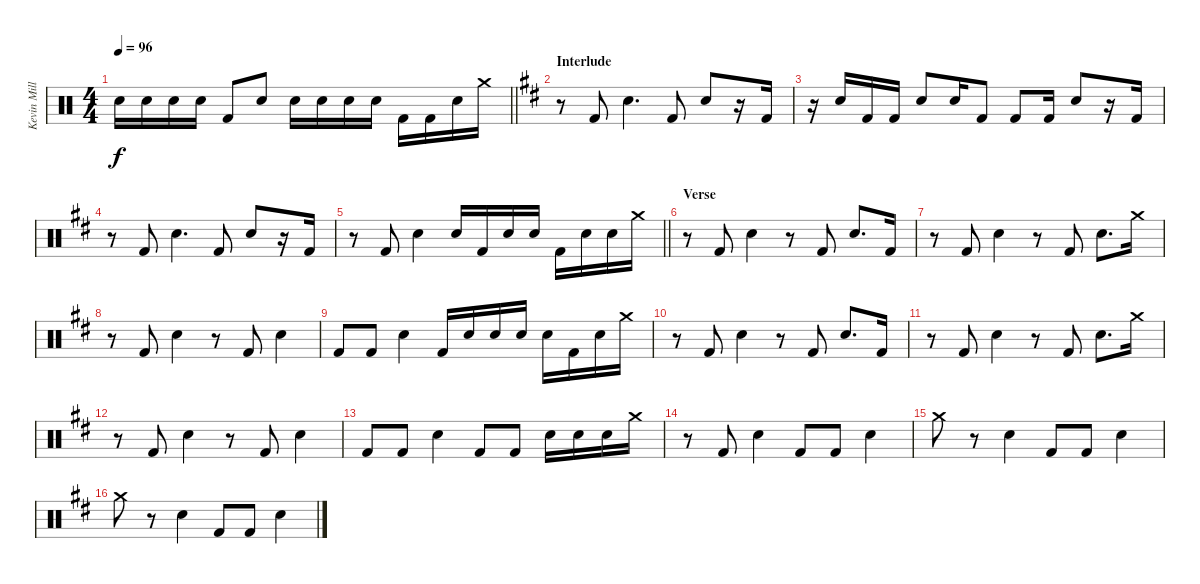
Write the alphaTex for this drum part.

\track ("Kevin Miller (Drums)" "Kevin Mill") {instrument percussion}
\staff {score}
\articulation defaults
\ts (4 4)
\tempo 96
\clef neutral
\barLineRight lightlight
\ks c "Electric Snare (hit)".16{dy f} "Electric Snare (hit)".16 "Electric Snare (hit)".16 "Electric Snare (hit)".16 "Kick (hit) 2".8 "Electric Snare (hit)".8 "Electric Snare (hit)".16 "Electric Snare (hit)".16 "Electric Snare (hit)".16 "Electric Snare (hit)".16 "Kick (hit) 2".16 "Kick (hit) 2".16 "Electric Snare (hit)".16 "Crash medium (hit)".16
|
\section ("" "Interlude")
\ks d
r.8 "Kick (hit) 2".8 "Electric Snare (hit)".4{d} "Kick (hit) 2".8 "Electric Snare (hit)".8 r.16 "Kick (hit) 2".16 |
r.16 "Electric Snare (hit)".16 "Kick (hit) 2".16 "Kick (hit) 2".16 "Electric Snare (hit)".8 "Electric Snare (hit)".16 "Kick (hit) 2".8 "Kick (hit) 2".8 "Kick (hit) 2".16 "Electric Snare (hit)".8 r.16 "Kick (hit) 2".16 |
r.8 "Kick (hit) 2".8 "Electric Snare (hit)".4{d} "Kick (hit) 2".8 "Electric Snare (hit)".8 r.16 "Kick (hit) 2".16 |
\barLineRight lightlight
r.8 "Kick (hit) 2".8 "Electric Snare (hit)".4 "Electric Snare (hit)".16 "Kick (hit) 2".16 "Electric Snare (hit)".16 "Electric Snare (hit)".16 "Kick (hit) 2".16 "Electric Snare (hit)".16 "Electric Snare (hit)".16 "Crash medium (hit)".16 |
\section ("" "Verse")
r.8 "Kick (hit) 2".8 "Electric Snare (hit)".4 r.8 "Kick (hit) 2".8 "Electric Snare (hit)".8{d} "Kick (hit) 2".16 |
r.8 "Kick (hit) 2".8 "Electric Snare (hit)".4 r.8 "Kick (hit) 2".8 "Electric Snare (hit)".8{d} "Crash medium (hit)".16 |
r.8 "Kick (hit) 2".8 "Electric Snare (hit)".4 r.8 "Kick (hit) 2".8 "Electric Snare (hit)".4 |
"Kick (hit) 2".8 "Kick (hit) 2".8 "Electric Snare (hit)".4 "Kick (hit) 2".16 "Electric Snare (hit)".16 "Electric Snare (hit)".16 "Electric Snare (hit)".16 "Electric Snare (hit)".16 "Kick (hit) 2".16 "Electric Snare (hit)".16 "Crash medium (hit)".16 |
r.8 "Kick (hit) 2".8 "Electric Snare (hit)".4 r.8 "Kick (hit) 2".8 "Electric Snare (hit)".8{d} "Kick (hit) 2".16 |
r.8 "Kick (hit) 2".8 "Electric Snare (hit)".4 r.8 "Kick (hit) 2".8 "Electric Snare (hit)".8{d} "Crash medium (hit)".16 |
r.8 "Kick (hit) 2".8 "Electric Snare (hit)".4 r.8 "Kick (hit) 2".8 "Electric Snare (hit)".4 |
"Kick (hit) 2".8 "Kick (hit) 2".8 "Electric Snare (hit)".4 "Kick (hit) 2".8 "Kick (hit) 2".8 "Electric Snare (hit)".16 "Electric Snare (hit)".16 "Electric Snare (hit)".16 "Crash medium (hit)".16 |
r.8 "Kick (hit) 2".8 "Electric Snare (hit)".4 "Kick (hit) 2".8 "Kick (hit) 2".8 "Electric Snare (hit)".4 |
"Crash medium (hit)".8 r.8 "Electric Snare (hit)".4 "Kick (hit) 2".8 "Kick (hit) 2".8 "Electric Snare (hit)".4 |
"Crash medium (hit)".8 r.8 "Electric Snare (hit)".4 "Kick (hit) 2".8 "Kick (hit) 2".8 "Electric Snare (hit)".4
